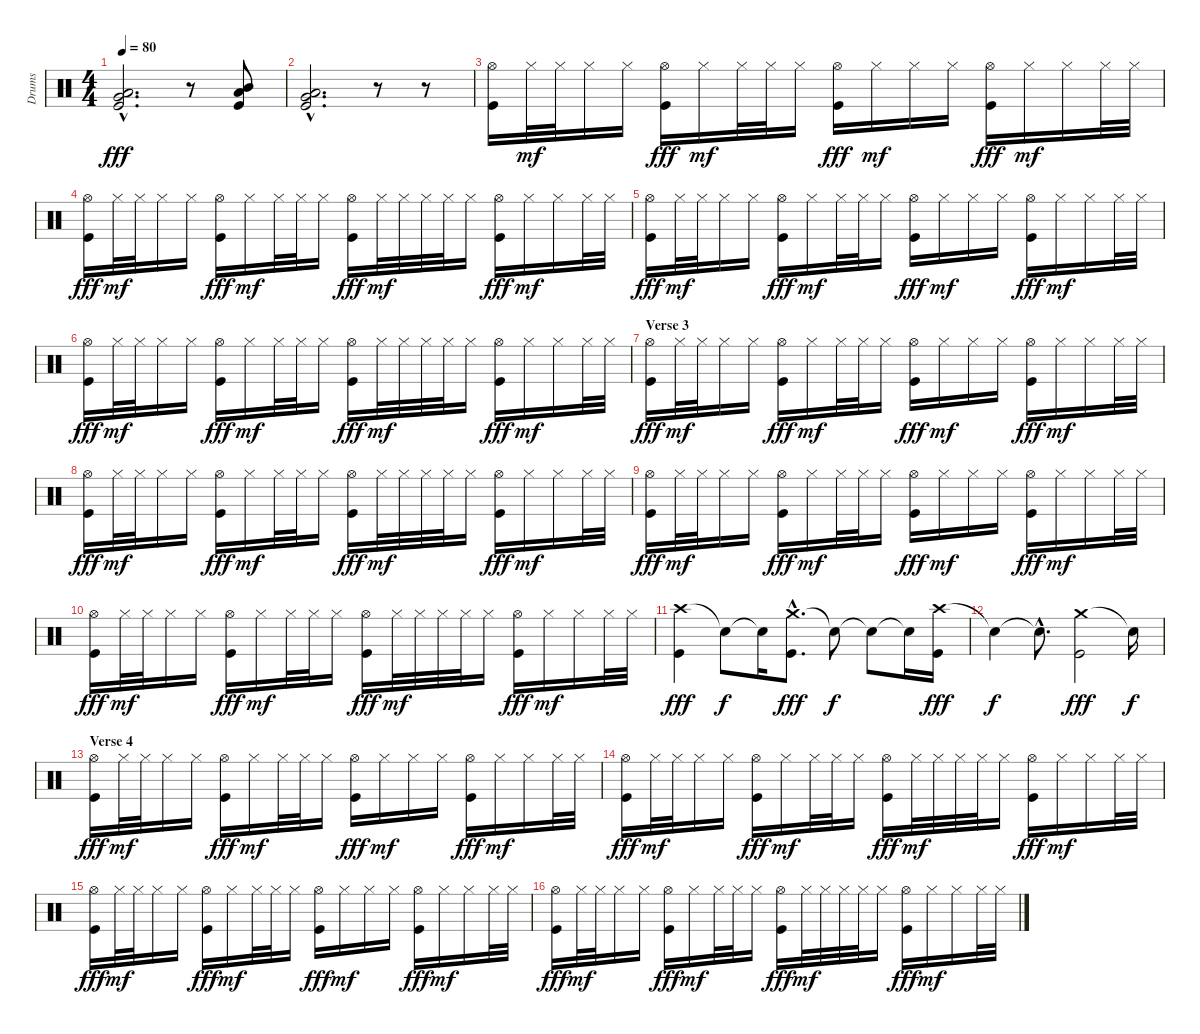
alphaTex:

\track ("Drums" "Drums") {instrument percussion}
\staff {score}
\articulation defaults
\ts (4 4)
\tempo 80
\clef neutral
\ks c
("Low Floor Tom (hit)"{hac} "Very Low Tom (hit)"{hac} "Kick (hit)"{hac}).2{d dy fff} r.8 ("Mid Tom (hit)" "Low Tom (hit)" "Kick (hit)").8 |
("Low Floor Tom (hit)"{hac} "Very Low Tom (hit)"{hac} "Kick (hit)"{hac}).2{d} r.8 r.8 |
("Hi-Hat (open)" "Kick (hit)").16 "Hi-Hat (closed)".32{dy mf} "Hi-Hat (closed)".32 "Hi-Hat (closed)".16 "Hi-Hat (closed)".16 ("Hi-Hat (open)" "Kick (hit)").16{dy fff} "Hi-Hat (closed)".16{dy mf} "Hi-Hat (closed)".32 "Hi-Hat (closed)".32 "Hi-Hat (closed)".16 ("Hi-Hat (open)" "Kick (hit)").16{dy fff} "Hi-Hat (closed)".16{dy mf} "Hi-Hat (closed)".16 "Hi-Hat (closed)".16 ("Hi-Hat (open)" "Kick (hit)").16{dy fff} "Hi-Hat (closed)".16{dy mf} "Hi-Hat (closed)".16 "Hi-Hat (closed)".32 "Hi-Hat (closed)".32 |
("Hi-Hat (open)" "Kick (hit)").16{dy fff} "Hi-Hat (closed)".32{dy mf} "Hi-Hat (closed)".32 "Hi-Hat (closed)".16 "Hi-Hat (closed)".16 ("Hi-Hat (open)" "Kick (hit)").16{dy fff} "Hi-Hat (closed)".16{dy mf} "Hi-Hat (closed)".32 "Hi-Hat (closed)".32 "Hi-Hat (closed)".16 ("Hi-Hat (open)" "Kick (hit)").16{dy fff} "Hi-Hat (closed)".32{dy mf} "Hi-Hat (closed)".32 "Hi-Hat (closed)".32 "Hi-Hat (closed)".32 "Hi-Hat (closed)".16 ("Hi-Hat (open)" "Kick (hit)").16{dy fff} "Hi-Hat (closed)".16{dy mf} "Hi-Hat (closed)".16 "Hi-Hat (closed)".32 "Hi-Hat (closed)".32 |
("Hi-Hat (open)" "Kick (hit)").16{dy fff} "Hi-Hat (closed)".32{dy mf} "Hi-Hat (closed)".32 "Hi-Hat (closed)".16 "Hi-Hat (closed)".16 ("Hi-Hat (open)" "Kick (hit)").16{dy fff} "Hi-Hat (closed)".16{dy mf} "Hi-Hat (closed)".32 "Hi-Hat (closed)".32 "Hi-Hat (closed)".16 ("Hi-Hat (open)" "Kick (hit)").16{dy fff} "Hi-Hat (closed)".16{dy mf} "Hi-Hat (closed)".16 "Hi-Hat (closed)".16 ("Hi-Hat (open)" "Kick (hit)").16{dy fff} "Hi-Hat (closed)".16{dy mf} "Hi-Hat (closed)".16 "Hi-Hat (closed)".32 "Hi-Hat (closed)".32 |
("Hi-Hat (open)" "Kick (hit)").16{dy fff} "Hi-Hat (closed)".32{dy mf} "Hi-Hat (closed)".32 "Hi-Hat (closed)".16 "Hi-Hat (closed)".16 ("Hi-Hat (open)" "Kick (hit)").16{dy fff} "Hi-Hat (closed)".16{dy mf} "Hi-Hat (closed)".32 "Hi-Hat (closed)".32 "Hi-Hat (closed)".16 ("Hi-Hat (open)" "Kick (hit)").16{dy fff} "Hi-Hat (closed)".32{dy mf} "Hi-Hat (closed)".32 "Hi-Hat (closed)".32 "Hi-Hat (closed)".32 "Hi-Hat (closed)".16 ("Hi-Hat (open)" "Kick (hit)").16{dy fff} "Hi-Hat (closed)".16{dy mf} "Hi-Hat (closed)".16 "Hi-Hat (closed)".32 "Hi-Hat (closed)".32 |
\section ("" "Verse 3")
("Hi-Hat (open)" "Kick (hit)").16{dy fff} "Hi-Hat (closed)".32{dy mf} "Hi-Hat (closed)".32 "Hi-Hat (closed)".16 "Hi-Hat (closed)".16 ("Hi-Hat (open)" "Kick (hit)").16{dy fff} "Hi-Hat (closed)".16{dy mf} "Hi-Hat (closed)".32 "Hi-Hat (closed)".32 "Hi-Hat (closed)".16 ("Hi-Hat (open)" "Kick (hit)").16{dy fff} "Hi-Hat (closed)".16{dy mf} "Hi-Hat (closed)".16 "Hi-Hat (closed)".16 ("Hi-Hat (open)" "Kick (hit)").16{dy fff} "Hi-Hat (closed)".16{dy mf} "Hi-Hat (closed)".16 "Hi-Hat (closed)".32 "Hi-Hat (closed)".32 |
("Hi-Hat (open)" "Kick (hit)").16{dy fff} "Hi-Hat (closed)".32{dy mf} "Hi-Hat (closed)".32 "Hi-Hat (closed)".16 "Hi-Hat (closed)".16 ("Hi-Hat (open)" "Kick (hit)").16{dy fff} "Hi-Hat (closed)".16{dy mf} "Hi-Hat (closed)".32 "Hi-Hat (closed)".32 "Hi-Hat (closed)".16 ("Hi-Hat (open)" "Kick (hit)").16{dy fff} "Hi-Hat (closed)".32{dy mf} "Hi-Hat (closed)".32 "Hi-Hat (closed)".32 "Hi-Hat (closed)".32 "Hi-Hat (closed)".16 ("Hi-Hat (open)" "Kick (hit)").16{dy fff} "Hi-Hat (closed)".16{dy mf} "Hi-Hat (closed)".16 "Hi-Hat (closed)".32 "Hi-Hat (closed)".32 |
("Hi-Hat (open)" "Kick (hit)").16{dy fff} "Hi-Hat (closed)".32{dy mf} "Hi-Hat (closed)".32 "Hi-Hat (closed)".16 "Hi-Hat (closed)".16 ("Hi-Hat (open)" "Kick (hit)").16{dy fff} "Hi-Hat (closed)".16{dy mf} "Hi-Hat (closed)".32 "Hi-Hat (closed)".32 "Hi-Hat (closed)".16 ("Hi-Hat (open)" "Kick (hit)").16{dy fff} "Hi-Hat (closed)".16{dy mf} "Hi-Hat (closed)".16 "Hi-Hat (closed)".16 ("Hi-Hat (open)" "Kick (hit)").16{dy fff} "Hi-Hat (closed)".16{dy mf} "Hi-Hat (closed)".16 "Hi-Hat (closed)".32 "Hi-Hat (closed)".32 |
("Hi-Hat (open)" "Kick (hit)").16{dy fff} "Hi-Hat (closed)".32{dy mf} "Hi-Hat (closed)".32 "Hi-Hat (closed)".16 "Hi-Hat (closed)".16 ("Hi-Hat (open)" "Kick (hit)").16{dy fff} "Hi-Hat (closed)".16{dy mf} "Hi-Hat (closed)".32 "Hi-Hat (closed)".32 "Hi-Hat (closed)".16 ("Hi-Hat (open)" "Kick (hit)").16{dy fff} "Hi-Hat (closed)".32{dy mf} "Hi-Hat (closed)".32 "Hi-Hat (closed)".32 "Hi-Hat (closed)".32 "Hi-Hat (closed)".16 ("Hi-Hat (open)" "Kick (hit)").16{dy fff} "Hi-Hat (closed)".16{dy mf} "Hi-Hat (closed)".16 "Hi-Hat (closed)".32 "Hi-Hat (closed)".32 |
("Crash high (hit)" "Kick (hit)").4{dy fff} "Snare (hit)"{t}.8{dy f} "Snare (hit)"{t}.16 ("Crash medium (hit)"{hac} "Kick (hit)"{hac}).8{d dy fff} "Snare (hit)"{t}.8{dy f} "Snare (hit)"{t}.8 "Snare (hit)"{t}.16 ("Crash high (hit)" "Kick (hit)").16{dy fff} |
"Snare (hit)"{t}.4{dy f} "Snare (hit)"{hac t}.8{d} ("Crash medium (hit)" "Kick (hit)").2{dy fff} "Snare (hit)"{t}.16{dy f} |
\section ("" "Verse 4")
("Hi-Hat (open)" "Kick (hit)").16{dy fff} "Hi-Hat (closed)".32{dy mf} "Hi-Hat (closed)".32 "Hi-Hat (closed)".16 "Hi-Hat (closed)".16 ("Hi-Hat (open)" "Kick (hit)").16{dy fff} "Hi-Hat (closed)".16{dy mf} "Hi-Hat (closed)".32 "Hi-Hat (closed)".32 "Hi-Hat (closed)".16 ("Hi-Hat (open)" "Kick (hit)").16{dy fff} "Hi-Hat (closed)".16{dy mf} "Hi-Hat (closed)".16 "Hi-Hat (closed)".16 ("Hi-Hat (open)" "Kick (hit)").16{dy fff} "Hi-Hat (closed)".16{dy mf} "Hi-Hat (closed)".16 "Hi-Hat (closed)".32 "Hi-Hat (closed)".32 |
("Hi-Hat (open)" "Kick (hit)").16{dy fff} "Hi-Hat (closed)".32{dy mf} "Hi-Hat (closed)".32 "Hi-Hat (closed)".16 "Hi-Hat (closed)".16 ("Hi-Hat (open)" "Kick (hit)").16{dy fff} "Hi-Hat (closed)".16{dy mf} "Hi-Hat (closed)".32 "Hi-Hat (closed)".32 "Hi-Hat (closed)".16 ("Hi-Hat (open)" "Kick (hit)").16{dy fff} "Hi-Hat (closed)".32{dy mf} "Hi-Hat (closed)".32 "Hi-Hat (closed)".32 "Hi-Hat (closed)".32 "Hi-Hat (closed)".16 ("Hi-Hat (open)" "Kick (hit)").16{dy fff} "Hi-Hat (closed)".16{dy mf} "Hi-Hat (closed)".16 "Hi-Hat (closed)".32 "Hi-Hat (closed)".32 |
("Hi-Hat (open)" "Kick (hit)").16{dy fff} "Hi-Hat (closed)".32{dy mf} "Hi-Hat (closed)".32 "Hi-Hat (closed)".16 "Hi-Hat (closed)".16 ("Hi-Hat (open)" "Kick (hit)").16{dy fff} "Hi-Hat (closed)".16{dy mf} "Hi-Hat (closed)".32 "Hi-Hat (closed)".32 "Hi-Hat (closed)".16 ("Hi-Hat (open)" "Kick (hit)").16{dy fff} "Hi-Hat (closed)".16{dy mf} "Hi-Hat (closed)".16 "Hi-Hat (closed)".16 ("Hi-Hat (open)" "Kick (hit)").16{dy fff} "Hi-Hat (closed)".16{dy mf} "Hi-Hat (closed)".16 "Hi-Hat (closed)".32 "Hi-Hat (closed)".32 |
("Hi-Hat (open)" "Kick (hit)").16{dy fff} "Hi-Hat (closed)".32{dy mf} "Hi-Hat (closed)".32 "Hi-Hat (closed)".16 "Hi-Hat (closed)".16 ("Hi-Hat (open)" "Kick (hit)").16{dy fff} "Hi-Hat (closed)".16{dy mf} "Hi-Hat (closed)".32 "Hi-Hat (closed)".32 "Hi-Hat (closed)".16 ("Hi-Hat (open)" "Kick (hit)").16{dy fff} "Hi-Hat (closed)".32{dy mf} "Hi-Hat (closed)".32 "Hi-Hat (closed)".32 "Hi-Hat (closed)".32 "Hi-Hat (closed)".16 ("Hi-Hat (open)" "Kick (hit)").16{dy fff} "Hi-Hat (closed)".16{dy mf} "Hi-Hat (closed)".16 "Hi-Hat (closed)".32 "Hi-Hat (closed)".32
